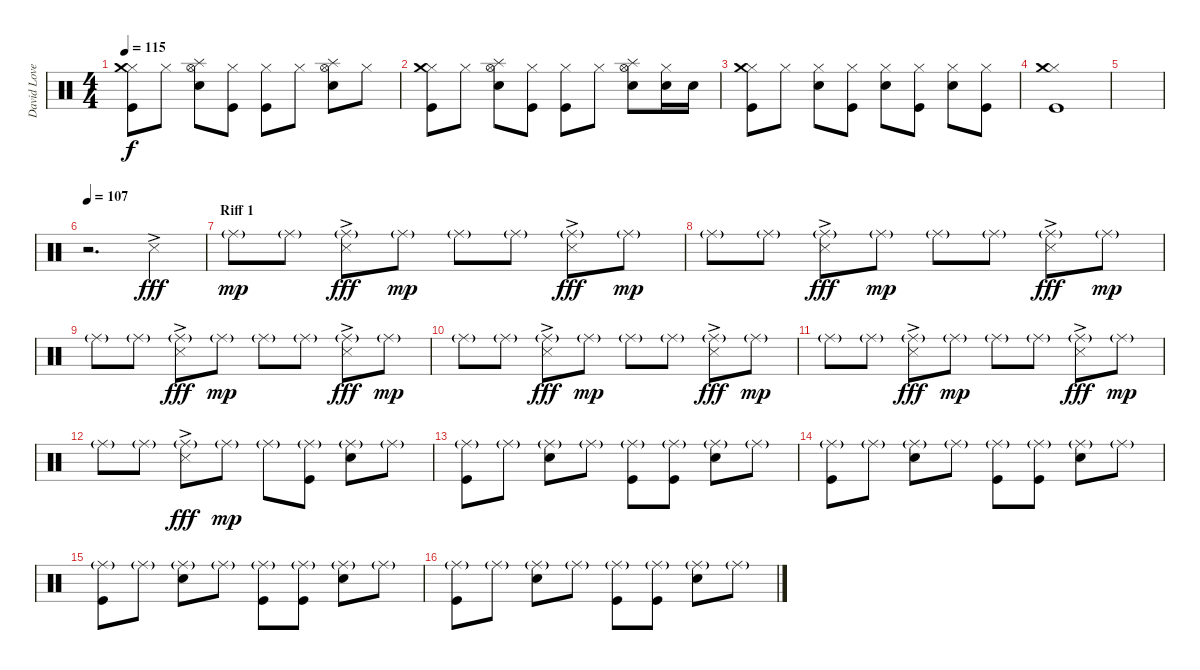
\track ("David Lovering" "David Love") {instrument percussion}
\staff {score}
\articulation defaults
\ts (4 4)
\tempo 115
\clef neutral
\ks c
("Hi-Hat (closed)" "Crash medium (hit)" "Kick (hit)").8{dy f} "Hi-Hat (closed)".8 ("Hi-Hat (open)" "Splash (hit)" "Snare (hit) 2").8 ("Hi-Hat (closed)" "Kick (hit)").8 ("Hi-Hat (closed)" "Kick (hit)").8 "Hi-Hat (closed)".8 ("Hi-Hat (open)" "Splash (hit)" "Snare (hit) 2").8 "Hi-Hat (closed)".8 |
("Hi-Hat (closed)" "Crash medium (hit)" "Kick (hit)").8 "Hi-Hat (closed)".8 ("Hi-Hat (open)" "Splash (hit)" "Snare (hit) 2").8 ("Hi-Hat (closed)" "Kick (hit)").8 ("Hi-Hat (closed)" "Kick (hit)").8 "Hi-Hat (closed)".8 ("Hi-Hat (open)" "Splash (hit)" "Snare (hit) 2").8 ("Hi-Hat (closed)" "Snare (hit) 2").16 "Snare (hit) 2".16 |
("Hi-Hat (closed)" "Crash medium (hit)" "Kick (hit)").8 "Hi-Hat (closed)".8 ("Hi-Hat (closed)" "Snare (hit) 2").8 ("Hi-Hat (closed)" "Kick (hit)").8 ("Hi-Hat (closed)" "Snare (hit) 2").8 ("Hi-Hat (closed)" "Kick (hit)").8 ("Hi-Hat (closed)" "Snare (hit) 2").8 ("Hi-Hat (closed)" "Kick (hit)").8 |
("Hi-Hat (closed)" "Crash medium (hit)" "Kick (hit)").1 |
|
\tempo 107
r.2{d} "Snare (side stick) 3"{ac}.4{dy fff} |
\section ("" "Riff 1")
"Ride (middle)"{g}.8{dy mp} "Ride (middle)"{g}.8 ("Ride (middle)"{g} "Snare (side stick) 3"{ac}).8{dy fff} "Ride (middle)"{g}.8{dy mp} "Ride (middle)"{g}.8 "Ride (middle)"{g}.8 ("Ride (middle)"{g} "Snare (side stick) 3"{ac}).8{dy fff} "Ride (middle)"{g}.8{dy mp} |
\section ("" "")
"Ride (middle)"{g}.8 "Ride (middle)"{g}.8 ("Ride (middle)"{g} "Snare (side stick) 3"{ac}).8{dy fff} "Ride (middle)"{g}.8{dy mp} "Ride (middle)"{g}.8 "Ride (middle)"{g}.8 ("Ride (middle)"{g} "Snare (side stick) 3"{ac}).8{dy fff} "Ride (middle)"{g}.8{dy mp} |
"Ride (middle)"{g}.8 "Ride (middle)"{g}.8 ("Ride (middle)"{g} "Snare (side stick) 3"{ac}).8{dy fff} "Ride (middle)"{g}.8{dy mp} "Ride (middle)"{g}.8 "Ride (middle)"{g}.8 ("Ride (middle)"{g} "Snare (side stick) 3"{ac}).8{dy fff} "Ride (middle)"{g}.8{dy mp} |
"Ride (middle)"{g}.8 "Ride (middle)"{g}.8 ("Ride (middle)"{g} "Snare (side stick) 3"{ac}).8{dy fff} "Ride (middle)"{g}.8{dy mp} "Ride (middle)"{g}.8 "Ride (middle)"{g}.8 ("Ride (middle)"{g} "Snare (side stick) 3"{ac}).8{dy fff} "Ride (middle)"{g}.8{dy mp} |
"Ride (middle)"{g}.8 "Ride (middle)"{g}.8 ("Ride (middle)"{g} "Snare (side stick) 3"{ac}).8{dy fff} "Ride (middle)"{g}.8{dy mp} "Ride (middle)"{g}.8 "Ride (middle)"{g}.8 ("Ride (middle)"{g} "Snare (side stick) 3"{ac}).8{dy fff} "Ride (middle)"{g}.8{dy mp} |
"Ride (middle)"{g}.8 "Ride (middle)"{g}.8 ("Ride (middle)"{g} "Snare (side stick) 3"{ac}).8{dy fff} "Ride (middle)"{g}.8{dy mp} "Ride (middle)"{g}.8 ("Ride (middle)"{g} "Kick (hit)").8 ("Ride (middle)"{g} "Snare (hit) 2").8 "Ride (middle)"{g}.8 |
\section ("" "")
("Ride (middle)"{g} "Kick (hit)").8 "Ride (middle)"{g}.8 ("Ride (middle)"{g} "Snare (hit) 2").8 "Ride (middle)"{g}.8 ("Ride (middle)"{g} "Kick (hit)").8 ("Ride (middle)"{g} "Kick (hit)").8 ("Ride (middle)"{g} "Snare (hit) 2").8 "Ride (middle)"{g}.8 |
("Ride (middle)"{g} "Kick (hit)").8 "Ride (middle)"{g}.8 ("Ride (middle)"{g} "Snare (hit) 2").8 "Ride (middle)"{g}.8 ("Ride (middle)"{g} "Kick (hit)").8 ("Ride (middle)"{g} "Kick (hit)").8 ("Ride (middle)"{g} "Snare (hit) 2").8 "Ride (middle)"{g}.8 |
("Ride (middle)"{g} "Kick (hit)").8 "Ride (middle)"{g}.8 ("Ride (middle)"{g} "Snare (hit) 2").8 "Ride (middle)"{g}.8 ("Ride (middle)"{g} "Kick (hit)").8 ("Ride (middle)"{g} "Kick (hit)").8 ("Ride (middle)"{g} "Snare (hit) 2").8 "Ride (middle)"{g}.8 |
("Ride (middle)"{g} "Kick (hit)").8 "Ride (middle)"{g}.8 ("Ride (middle)"{g} "Snare (hit) 2").8 "Ride (middle)"{g}.8 ("Ride (middle)"{g} "Kick (hit)").8 ("Ride (middle)"{g} "Kick (hit)").8 ("Ride (middle)"{g} "Snare (hit) 2").8 "Ride (middle)"{g}.8
